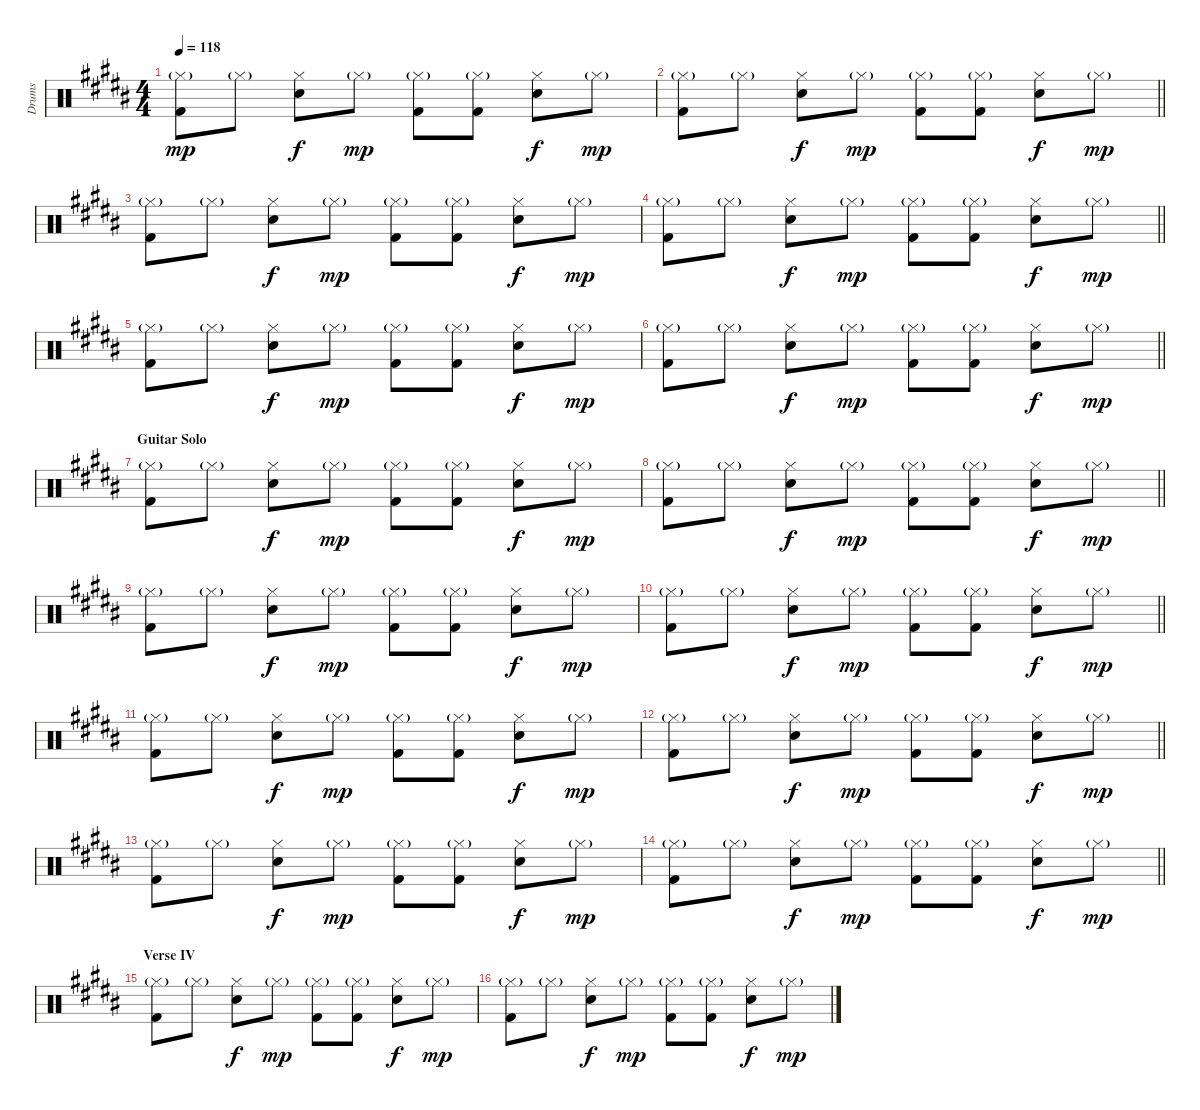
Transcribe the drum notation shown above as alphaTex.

\track ("Drums" "Drums") {instrument percussion}
\staff {score}
\articulation defaults
\ts (4 4)
\tempo 118
\clef neutral
\ks b
("Hi-Hat (closed)"{g} "Kick (hit) 2").8{dy mp} "Hi-Hat (closed)"{g}.8 ("Hi-Hat (closed)" "Snare (hit) 2").8{dy f} "Hi-Hat (closed)"{g}.8{dy mp} ("Hi-Hat (closed)"{g} "Kick (hit) 2").8 ("Hi-Hat (closed)"{g} "Kick (hit) 2").8 ("Hi-Hat (closed)" "Snare (hit) 2").8{dy f} "Hi-Hat (closed)"{g}.8{dy mp} |
\barLineRight lightlight
("Hi-Hat (closed)"{g} "Kick (hit) 2").8 "Hi-Hat (closed)"{g}.8 ("Hi-Hat (closed)" "Snare (hit) 2").8{dy f} "Hi-Hat (closed)"{g}.8{dy mp} ("Hi-Hat (closed)"{g} "Kick (hit) 2").8 ("Hi-Hat (closed)"{g} "Kick (hit) 2").8 ("Hi-Hat (closed)" "Snare (hit) 2").8{dy f} "Hi-Hat (closed)"{g}.8{dy mp} |
("Hi-Hat (closed)"{g} "Kick (hit) 2").8 "Hi-Hat (closed)"{g}.8 ("Hi-Hat (closed)" "Snare (hit) 2").8{dy f} "Hi-Hat (closed)"{g}.8{dy mp} ("Hi-Hat (closed)"{g} "Kick (hit) 2").8 ("Hi-Hat (closed)"{g} "Kick (hit) 2").8 ("Hi-Hat (closed)" "Snare (hit) 2").8{dy f} "Hi-Hat (closed)"{g}.8{dy mp} |
\barLineRight lightlight
("Hi-Hat (closed)"{g} "Kick (hit) 2").8 "Hi-Hat (closed)"{g}.8 ("Hi-Hat (closed)" "Snare (hit) 2").8{dy f} "Hi-Hat (closed)"{g}.8{dy mp} ("Hi-Hat (closed)"{g} "Kick (hit) 2").8 ("Hi-Hat (closed)"{g} "Kick (hit) 2").8 ("Hi-Hat (closed)" "Snare (hit) 2").8{dy f} "Hi-Hat (closed)"{g}.8{dy mp} |
("Hi-Hat (closed)"{g} "Kick (hit) 2").8 "Hi-Hat (closed)"{g}.8 ("Hi-Hat (closed)" "Snare (hit) 2").8{dy f} "Hi-Hat (closed)"{g}.8{dy mp} ("Hi-Hat (closed)"{g} "Kick (hit) 2").8 ("Hi-Hat (closed)"{g} "Kick (hit) 2").8 ("Hi-Hat (closed)" "Snare (hit) 2").8{dy f} "Hi-Hat (closed)"{g}.8{dy mp} |
\barLineRight lightlight
("Hi-Hat (closed)"{g} "Kick (hit) 2").8 "Hi-Hat (closed)"{g}.8 ("Hi-Hat (closed)" "Snare (hit) 2").8{dy f} "Hi-Hat (closed)"{g}.8{dy mp} ("Hi-Hat (closed)"{g} "Kick (hit) 2").8 ("Hi-Hat (closed)"{g} "Kick (hit) 2").8 ("Hi-Hat (closed)" "Snare (hit) 2").8{dy f} "Hi-Hat (closed)"{g}.8{dy mp} |
\section ("" "Guitar Solo")
("Hi-Hat (closed)"{g} "Kick (hit) 2").8 "Hi-Hat (closed)"{g}.8 ("Hi-Hat (closed)" "Snare (hit) 2").8{dy f} "Hi-Hat (closed)"{g}.8{dy mp} ("Hi-Hat (closed)"{g} "Kick (hit) 2").8 ("Hi-Hat (closed)"{g} "Kick (hit) 2").8 ("Hi-Hat (closed)" "Snare (hit) 2").8{dy f} "Hi-Hat (closed)"{g}.8{dy mp} |
\barLineRight lightlight
("Hi-Hat (closed)"{g} "Kick (hit) 2").8 "Hi-Hat (closed)"{g}.8 ("Hi-Hat (closed)" "Snare (hit) 2").8{dy f} "Hi-Hat (closed)"{g}.8{dy mp} ("Hi-Hat (closed)"{g} "Kick (hit) 2").8 ("Hi-Hat (closed)"{g} "Kick (hit) 2").8 ("Hi-Hat (closed)" "Snare (hit) 2").8{dy f} "Hi-Hat (closed)"{g}.8{dy mp} |
("Hi-Hat (closed)"{g} "Kick (hit) 2").8 "Hi-Hat (closed)"{g}.8 ("Hi-Hat (closed)" "Snare (hit) 2").8{dy f} "Hi-Hat (closed)"{g}.8{dy mp} ("Hi-Hat (closed)"{g} "Kick (hit) 2").8 ("Hi-Hat (closed)"{g} "Kick (hit) 2").8 ("Hi-Hat (closed)" "Snare (hit) 2").8{dy f} "Hi-Hat (closed)"{g}.8{dy mp} |
\barLineRight lightlight
("Hi-Hat (closed)"{g} "Kick (hit) 2").8 "Hi-Hat (closed)"{g}.8 ("Hi-Hat (closed)" "Snare (hit) 2").8{dy f} "Hi-Hat (closed)"{g}.8{dy mp} ("Hi-Hat (closed)"{g} "Kick (hit) 2").8 ("Hi-Hat (closed)"{g} "Kick (hit) 2").8 ("Hi-Hat (closed)" "Snare (hit) 2").8{dy f} "Hi-Hat (closed)"{g}.8{dy mp} |
("Hi-Hat (closed)"{g} "Kick (hit) 2").8 "Hi-Hat (closed)"{g}.8 ("Hi-Hat (closed)" "Snare (hit) 2").8{dy f} "Hi-Hat (closed)"{g}.8{dy mp} ("Hi-Hat (closed)"{g} "Kick (hit) 2").8 ("Hi-Hat (closed)"{g} "Kick (hit) 2").8 ("Hi-Hat (closed)" "Snare (hit) 2").8{dy f} "Hi-Hat (closed)"{g}.8{dy mp} |
\barLineRight lightlight
("Hi-Hat (closed)"{g} "Kick (hit) 2").8 "Hi-Hat (closed)"{g}.8 ("Hi-Hat (closed)" "Snare (hit) 2").8{dy f} "Hi-Hat (closed)"{g}.8{dy mp} ("Hi-Hat (closed)"{g} "Kick (hit) 2").8 ("Hi-Hat (closed)"{g} "Kick (hit) 2").8 ("Hi-Hat (closed)" "Snare (hit) 2").8{dy f} "Hi-Hat (closed)"{g}.8{dy mp} |
("Hi-Hat (closed)"{g} "Kick (hit) 2").8 "Hi-Hat (closed)"{g}.8 ("Hi-Hat (closed)" "Snare (hit) 2").8{dy f} "Hi-Hat (closed)"{g}.8{dy mp} ("Hi-Hat (closed)"{g} "Kick (hit) 2").8 ("Hi-Hat (closed)"{g} "Kick (hit) 2").8 ("Hi-Hat (closed)" "Snare (hit) 2").8{dy f} "Hi-Hat (closed)"{g}.8{dy mp} |
\barLineRight lightlight
("Hi-Hat (closed)"{g} "Kick (hit) 2").8 "Hi-Hat (closed)"{g}.8 ("Hi-Hat (closed)" "Snare (hit) 2").8{dy f} "Hi-Hat (closed)"{g}.8{dy mp} ("Hi-Hat (closed)"{g} "Kick (hit) 2").8 ("Hi-Hat (closed)"{g} "Kick (hit) 2").8 ("Hi-Hat (closed)" "Snare (hit) 2").8{dy f} "Hi-Hat (closed)"{g}.8{dy mp} |
\section ("" "Verse IV")
("Hi-Hat (closed)"{g} "Kick (hit) 2").8 "Hi-Hat (closed)"{g}.8 ("Hi-Hat (closed)" "Snare (hit) 2").8{dy f} "Hi-Hat (closed)"{g}.8{dy mp} ("Hi-Hat (closed)"{g} "Kick (hit) 2").8 ("Hi-Hat (closed)"{g} "Kick (hit) 2").8 ("Hi-Hat (closed)" "Snare (hit) 2").8{dy f} "Hi-Hat (closed)"{g}.8{dy mp} |
("Hi-Hat (closed)"{g} "Kick (hit) 2").8 "Hi-Hat (closed)"{g}.8 ("Hi-Hat (closed)" "Snare (hit) 2").8{dy f} "Hi-Hat (closed)"{g}.8{dy mp} ("Hi-Hat (closed)"{g} "Kick (hit) 2").8 ("Hi-Hat (closed)"{g} "Kick (hit) 2").8 ("Hi-Hat (closed)" "Snare (hit) 2").8{dy f} "Hi-Hat (closed)"{g}.8{dy mp}
